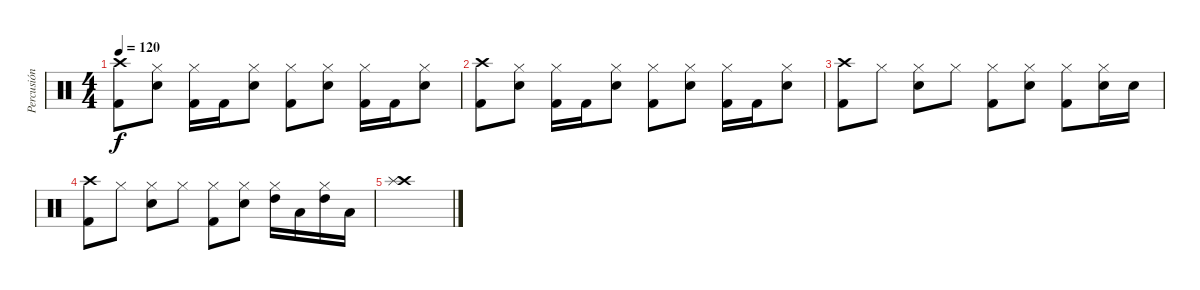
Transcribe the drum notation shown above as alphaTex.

\track ("Percusión" "Percusión") {instrument percussion}
\staff {score}
\articulation defaults
\ts (4 4)
\tempo 120
\clef neutral
\ks c
("Kick (hit) 2" "Crash high (hit)").8{dy f} ("Snare (hit) 2" "Hi-Hat (closed)").8 ("Kick (hit) 2" "Hi-Hat (closed)").16 "Kick (hit) 2".16 ("Snare (hit) 2" "Hi-Hat (closed)").8 ("Kick (hit) 2" "Hi-Hat (closed)").8 ("Snare (hit) 2" "Hi-Hat (closed)").8 ("Kick (hit) 2" "Hi-Hat (closed)").16 "Kick (hit) 2".16 ("Snare (hit) 2" "Hi-Hat (closed)").8 |
("Kick (hit) 2" "Crash high (hit)").8 ("Snare (hit) 2" "Hi-Hat (closed)").8 ("Kick (hit) 2" "Hi-Hat (closed)").16 "Kick (hit) 2".16 ("Snare (hit) 2" "Hi-Hat (closed)").8 ("Kick (hit) 2" "Hi-Hat (closed)").8 ("Snare (hit) 2" "Hi-Hat (closed)").8 ("Kick (hit) 2" "Hi-Hat (closed)").16 "Kick (hit) 2".16 ("Snare (hit) 2" "Hi-Hat (closed)").8 |
("Kick (hit) 2" "Crash high (hit)").8 "Hi-Hat (closed)".8 ("Snare (hit) 2" "Hi-Hat (closed)").8 "Hi-Hat (closed)".8 ("Kick (hit) 2" "Hi-Hat (closed)").8 ("Snare (hit) 2" "Hi-Hat (closed)").8 ("Kick (hit) 2" "Hi-Hat (closed)").8 ("Snare (hit) 2" "Hi-Hat (closed)").16 "Snare (hit) 2".16 |
("Kick (hit) 2" "Crash high (hit)").8 "Hi-Hat (closed)".8 ("Snare (hit) 2" "Hi-Hat (closed)").8 "Hi-Hat (closed)".8 ("Kick (hit) 2" "Hi-Hat (closed)").8 ("Snare (hit) 2" "Hi-Hat (closed)").8 ("High Tom (hit)" "Hi-Hat (closed)").16 "Low Tom (hit)".16 ("High Tom (hit)" "Hi-Hat (closed)").16 "Low Tom (hit)".16 |
("Crash high (hit)" "Splash (hit)").1
